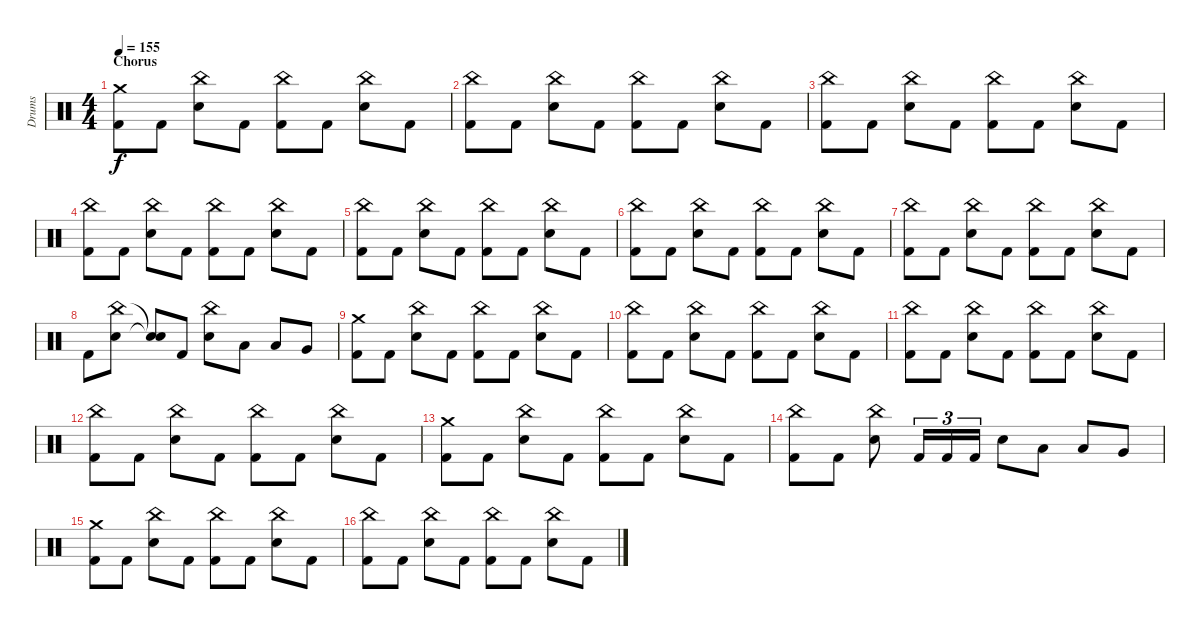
\track ("Drums" "Drums") {instrument percussion}
\staff {score}
\articulation defaults
\ts (4 4)
\section ("" "Chorus")
\tempo 155
\clef neutral
\ks c
("Kick (hit) 2" "Crash medium (hit)").8{dy f} "Kick (hit) 2".8 ("China (hit)" "Electric Snare (hit)").8 "Kick (hit) 2".8 ("Kick (hit) 2" "China (hit)").8 "Kick (hit) 2".8 ("China (hit)" "Electric Snare (hit)").8 "Kick (hit) 2".8 |
("Kick (hit) 2" "China (hit)").8 "Kick (hit) 2".8 ("China (hit)" "Electric Snare (hit)").8 "Kick (hit) 2".8 ("Kick (hit) 2" "China (hit)").8 "Kick (hit) 2".8 ("China (hit)" "Electric Snare (hit)").8 "Kick (hit) 2".8 |
("Kick (hit) 2" "China (hit)").8 "Kick (hit) 2".8 ("China (hit)" "Electric Snare (hit)").8 "Kick (hit) 2".8 ("Kick (hit) 2" "China (hit)").8 "Kick (hit) 2".8 ("China (hit)" "Electric Snare (hit)").8 "Kick (hit) 2".8 |
("Kick (hit) 2" "China (hit)").8 "Kick (hit) 2".8 ("China (hit)" "Electric Snare (hit)").8 "Kick (hit) 2".8 ("Kick (hit) 2" "China (hit)").8 "Kick (hit) 2".8 ("China (hit)" "Electric Snare (hit)").8 "Kick (hit) 2".8 |
("Kick (hit) 2" "China (hit)").8 "Kick (hit) 2".8 ("China (hit)" "Electric Snare (hit)").8 "Kick (hit) 2".8 ("Kick (hit) 2" "China (hit)").8 "Kick (hit) 2".8 ("China (hit)" "Electric Snare (hit)").8 "Kick (hit) 2".8 |
("Kick (hit) 2" "China (hit)").8 "Kick (hit) 2".8 ("China (hit)" "Electric Snare (hit)").8 "Kick (hit) 2".8 ("Kick (hit) 2" "China (hit)").8 "Kick (hit) 2".8 ("China (hit)" "Electric Snare (hit)").8 "Kick (hit) 2".8 |
("Kick (hit) 2" "China (hit)").8 "Kick (hit) 2".8 ("China (hit)" "Electric Snare (hit)").8 "Kick (hit) 2".8 ("Kick (hit) 2" "China (hit)").8 "Kick (hit) 2".8 ("China (hit)" "Electric Snare (hit)").8 "Kick (hit) 2".8 |
"Kick (hit) 2".8 ("China (hit)" "Electric Snare (hit)").8 ("Snare (hit)"{t} "Snare (hit)"{t}).8 "Kick (hit) 2".8 ("China (hit)" "Electric Snare (hit)").8 "Low Tom (hit)".8 "Low Tom (hit)".8 "Very Low Tom (hit)".8 |
("Kick (hit) 2" "Crash medium (hit)").8 "Kick (hit) 2".8 ("China (hit)" "Electric Snare (hit)").8 "Kick (hit) 2".8 ("Kick (hit) 2" "China (hit)").8 "Kick (hit) 2".8 ("China (hit)" "Electric Snare (hit)").8 "Kick (hit) 2".8 |
("Kick (hit) 2" "China (hit)").8 "Kick (hit) 2".8 ("China (hit)" "Electric Snare (hit)").8 "Kick (hit) 2".8 ("Kick (hit) 2" "China (hit)").8 "Kick (hit) 2".8 ("China (hit)" "Electric Snare (hit)").8 "Kick (hit) 2".8 |
("Kick (hit) 2" "China (hit)").8 "Kick (hit) 2".8 ("China (hit)" "Electric Snare (hit)").8 "Kick (hit) 2".8 ("Kick (hit) 2" "China (hit)").8 "Kick (hit) 2".8 ("China (hit)" "Electric Snare (hit)").8 "Kick (hit) 2".8 |
("Kick (hit) 2" "China (hit)").8 "Kick (hit) 2".8 ("China (hit)" "Electric Snare (hit)").8 "Kick (hit) 2".8 ("Kick (hit) 2" "China (hit)").8 "Kick (hit) 2".8 ("China (hit)" "Electric Snare (hit)").8 "Kick (hit) 2".8 |
("Kick (hit) 2" "Crash medium (hit)").8 "Kick (hit) 2".8 ("China (hit)" "Electric Snare (hit)").8 "Kick (hit) 2".8 ("Kick (hit) 2" "China (hit)").8 "Kick (hit) 2".8 ("China (hit)" "Electric Snare (hit)").8 "Kick (hit) 2".8 |
("Kick (hit) 2" "China (hit)").8 "Kick (hit) 2".8 ("China (hit)" "Electric Snare (hit)").8 "Kick (hit) 2".16{tu (3 2)} "Kick (hit) 2".16{tu (3 2)} "Kick (hit) 2".16{tu (3 2)} "Electric Snare (hit)".8 "Low Tom (hit)".8 "Low Tom (hit)".8 "Very Low Tom (hit)".8 |
("Kick (hit) 2" "Crash medium (hit)").8 "Kick (hit) 2".8 ("China (hit)" "Electric Snare (hit)").8 "Kick (hit) 2".8 ("Kick (hit) 2" "China (hit)").8 "Kick (hit) 2".8 ("China (hit)" "Electric Snare (hit)").8 "Kick (hit) 2".8 |
("Kick (hit) 2" "China (hit)").8 "Kick (hit) 2".8 ("China (hit)" "Electric Snare (hit)").8 "Kick (hit) 2".8 ("Kick (hit) 2" "China (hit)").8 "Kick (hit) 2".8 ("China (hit)" "Electric Snare (hit)").8 "Kick (hit) 2".8
